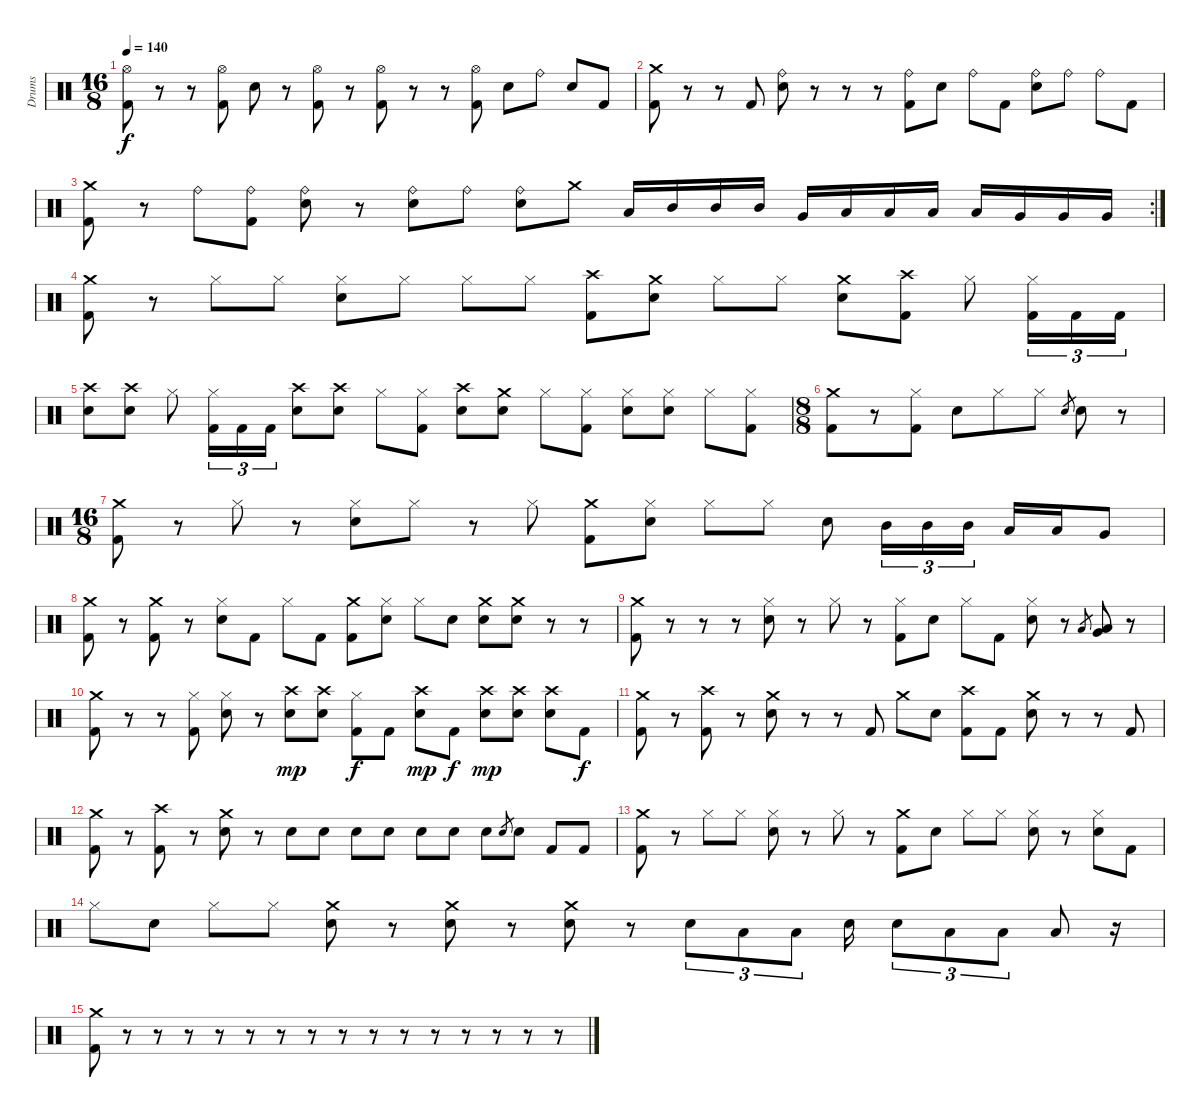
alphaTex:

\track ("Drums" "Drums") {instrument percussion}
\staff {score}
\articulation defaults
\ts (16 8)
\tempo 140
\clef neutral
\ks c
("Hi-Hat (open)" "Kick (hit) 2").8{dy f} r.8 r.8 ("Hi-Hat (open)" "Kick (hit) 2").8 "Electric Snare (hit)".8 r.8 ("Hi-Hat (open)" "Kick (hit) 2").8 r.8 ("Hi-Hat (open)" "Kick (hit) 2").8 r.8 r.8 ("Hi-Hat (open)" "Kick (hit) 2").8 "Electric Snare (hit)".8 "Ride (bell)".8 "Electric Snare (hit)".8 "Kick (hit) 2".8 |
("Crash medium (hit)" "Kick (hit) 2").8 r.8 r.8 "Kick (hit) 2".8 ("Ride (bell)" "Electric Snare (hit)").8 r.8 r.8 r.8 ("Ride (bell)" "Kick (hit) 2").8 "Electric Snare (hit)".8 "Ride (bell)".8 "Kick (hit) 2".8 ("Ride (bell)" "Electric Snare (hit)").8 "Ride (bell)".8 "Ride (bell)".8 "Kick (hit) 2".8 |
\rc 2
("Crash medium (hit)" "Kick (hit) 2").8 r.8 "Ride (bell)".8 ("Ride (bell)" "Kick (hit) 2").8 ("Ride (bell)" "Electric Snare (hit)").8 r.8 ("Ride (bell)" "Electric Snare (hit)").8 "Ride (bell)".8 ("Ride (bell)" "Electric Snare (hit)").8 "Crash medium (hit)".8 "Low Tom (hit)".16 "Mid Tom (hit)".16 "Mid Tom (hit)".16 "Mid Tom (hit)".16 "Very Low Tom (hit)".16 "Low Tom (hit)".16 "Low Tom (hit)".16 "Low Tom (hit)".16 "Low Floor Tom (hit)".16 "Very Low Tom (hit)".16 "Very Low Tom (hit)".16 "Very Low Tom (hit)".16 |
("Crash medium (hit)" "Kick (hit) 2").8 r.8 "Hi-Hat (closed)".8 "Hi-Hat (closed)".8 ("Hi-Hat (closed)" "Electric Snare (hit)").8 "Hi-Hat (closed)".8 "Hi-Hat (closed)".8 "Hi-Hat (closed)".8 ("Crash high (hit)" "Kick (hit) 2").8 ("Crash medium (hit)" "Electric Snare (hit)").8 "Hi-Hat (closed)".8 "Hi-Hat (closed)".8 ("Crash medium (hit)" "Electric Snare (hit)").8 ("Crash high (hit)" "Kick (hit) 2").8 "Hi-Hat (closed)".8 ("Hi-Hat (closed)" "Kick (hit) 2").16{tu (3 2)} "Kick (hit) 2".16{tu (3 2)} "Kick (hit) 2".16{tu (3 2)} |
("Crash high (hit)" "Electric Snare (hit)").8 ("Crash high (hit)" "Electric Snare (hit)").8 "Hi-Hat (closed)".8 ("Hi-Hat (closed)" "Kick (hit) 2").16{tu (3 2)} "Kick (hit) 2".16{tu (3 2)} "Kick (hit) 2".16{tu (3 2)} ("Crash high (hit)" "Electric Snare (hit)").8 ("Crash high (hit)" "Electric Snare (hit)").8 "Hi-Hat (closed)".8 ("Hi-Hat (closed)" "Kick (hit) 2").8 ("Crash high (hit)" "Electric Snare (hit)").8 ("Crash medium (hit)" "Electric Snare (hit)").8 "Hi-Hat (closed)".8 ("Hi-Hat (closed)" "Kick (hit) 2").8 ("Hi-Hat (closed)" "Electric Snare (hit)").8 ("Hi-Hat (closed)" "Electric Snare (hit)").8 "Hi-Hat (closed)".8 ("Hi-Hat (closed)" "Kick (hit) 2").8 |
\ts (8 8)
("Crash medium (hit)" "Kick (hit) 2").8 r.8 ("Hi-Hat (closed)" "Kick (hit) 2").8 "Electric Snare (hit)".8 "Hi-Hat (closed)".8 "Hi-Hat (closed)".8 "Electric Snare (hit)".8{gr} "Electric Snare (hit)".8 r.8 |
\ts (16 8)
("Crash medium (hit)" "Kick (hit) 2").8 r.8 "Hi-Hat (closed)".8 r.8 ("Hi-Hat (closed)" "Electric Snare (hit)").8 "Hi-Hat (closed)".8 r.8 "Hi-Hat (closed)".8 ("Crash medium (hit)" "Kick (hit) 2").8 ("Hi-Hat (closed)" "Electric Snare (hit)").8 "Hi-Hat (closed)".8 "Hi-Hat (closed)".8 "Electric Snare (hit)".8 "Mid Tom (hit)".16{tu (3 2)} "Mid Tom (hit)".16{tu (3 2)} "Mid Tom (hit)".16{tu (3 2)} "Low Tom (hit)".16 "Low Tom (hit)".16 "Very Low Tom (hit)".8 |
("Crash medium (hit)" "Kick (hit) 2").8 r.8 ("Crash medium (hit)" "Kick (hit) 2").8 r.8 ("Hi-Hat (closed)" "Electric Snare (hit)").8 "Kick (hit) 2".8 "Hi-Hat (closed)".8 "Kick (hit) 2".8 ("Crash medium (hit)" "Kick (hit) 2").8 ("Hi-Hat (closed)" "Electric Snare (hit)").8 "Hi-Hat (closed)".8 "Snare (hit)".8 ("Crash medium (hit)" "Electric Snare (hit)").8 ("Crash medium (hit)" "Electric Snare (hit)").8 r.8 r.8 |
("Crash medium (hit)" "Kick (hit) 2").8 r.8 r.8 r.8 ("Hi-Hat (closed)" "Electric Snare (hit)").8 r.8 "Hi-Hat (closed)".8 r.8 ("Hi-Hat (closed)" "Kick (hit) 2").8 "Electric Snare (hit)".8 "Hi-Hat (closed)".8 "Kick (hit) 2".8 ("Hi-Hat (closed)" "Electric Snare (hit)").8 r.8 "Low Tom (hit)".8{gr} ("Low Tom (hit)" "Very Low Tom (hit)").8 r.8 |
("Crash medium (hit)" "Kick (hit) 2").8 r.8 r.8 ("Hi-Hat (closed)" "Kick (hit) 2").8 ("Hi-Hat (closed)" "Electric Snare (hit)").8 r.8 ("Crash high (hit)" "Electric Snare (hit)").8{dy mp} ("Crash high (hit)" "Electric Snare (hit)").8 ("Hi-Hat (closed)" "Kick (hit) 2").8{dy f} "Kick (hit) 2".8 ("Crash high (hit)" "Electric Snare (hit)").8{dy mp} "Kick (hit) 2".8{dy f} ("Crash high (hit)" "Electric Snare (hit)").8{dy mp} ("Crash high (hit)" "Electric Snare (hit)").8 ("Crash high (hit)" "Electric Snare (hit)").8 "Kick (hit) 2".8{dy f} |
("Crash medium (hit)" "Kick (hit) 2").8 r.8 ("Crash high (hit)" "Kick (hit) 2").8 r.8 ("Crash medium (hit)" "Electric Snare (hit)").8 r.8 r.8 "Kick (hit) 2".8 "Crash medium (hit)".8 "Electric Snare (hit)".8 ("Crash high (hit)" "Kick (hit) 2").8 "Kick (hit) 2".8 ("Crash medium (hit)" "Electric Snare (hit)").8 r.8 r.8 "Kick (hit) 2".8 |
("Crash medium (hit)" "Kick (hit) 2").8 r.8 ("Crash high (hit)" "Kick (hit) 2").8 r.8 ("Crash medium (hit)" "Electric Snare (hit)").8 r.8 "Electric Snare (hit)".8 "Electric Snare (hit)".8 "Electric Snare (hit)".8 "Electric Snare (hit)".8 "Electric Snare (hit)".8 "Electric Snare (hit)".8 "Electric Snare (hit)".8 "Electric Snare (hit)".8{gr} "Electric Snare (hit)".8 "Kick (hit) 2".8 "Kick (hit) 2".8 |
("Crash medium (hit)" "Kick (hit) 2").8 r.8 "Hi-Hat (closed)".8 "Hi-Hat (closed)".8 ("Hi-Hat (closed)" "Electric Snare (hit)").8 r.8 "Hi-Hat (closed)".8 r.8 ("Crash medium (hit)" "Kick (hit) 2").8 "Electric Snare (hit)".8 "Hi-Hat (closed)".8 "Hi-Hat (closed)".8 ("Hi-Hat (closed)" "Electric Snare (hit)").8 r.8 ("Hi-Hat (closed)" "Electric Snare (hit)").8 "Kick (hit) 2".8 |
"Hi-Hat (closed)".8 "Electric Snare (hit)".8 "Hi-Hat (closed)".8 "Hi-Hat (closed)".8 ("Crash medium (hit)" "Electric Snare (hit)").8 r.8 ("Crash medium (hit)" "Electric Snare (hit)").8 r.8 ("Crash medium (hit)" "Electric Snare (hit)").8 r.8 "Electric Snare (hit)".8{tu (3 2)} "Low Tom (hit)".8{tu (3 2)} "Low Tom (hit)".8{tu (3 2)} "Electric Snare (hit)".16 "Electric Snare (hit)".8{tu (3 2)} "Low Tom (hit)".8{tu (3 2)} "Low Tom (hit)".8{tu (3 2)} "Low Tom (hit)".8 r.16 |
("Crash medium (hit)" "Kick (hit) 2").8 r.8 r.8 r.8 r.8 r.8 r.8 r.8 r.8 r.8 r.8 r.8 r.8 r.8 r.8 r.8
